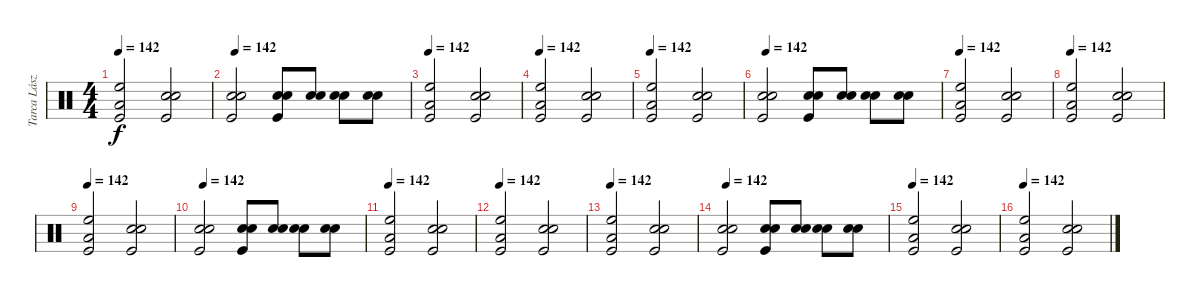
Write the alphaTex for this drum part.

\track ("Tarca László" "Tarca Lász") {instrument percussion}
\staff {score}
\articulation defaults
\ts (4 4)
\tempo 142
\clef neutral
\ks c
("Low Tom (hit)" "High Floor Tom (hit)" "Kick (hit)").2{dy f} ("Snare (hit) 2" "Snare (hit) 2" "Kick (hit)").2 |
\tempo 142
("Snare (hit) 2" "Snare (hit) 2" "Kick (hit)").2 ("Snare (hit) 2" "Snare (hit) 2" "Kick (hit)").8 ("Snare (hit) 2" "Snare (hit) 2").8 ("Snare (hit) 2" "Snare (hit) 2").8 ("Snare (hit) 2" "Snare (hit) 2").8 |
\tempo 142
("Low Tom (hit)" "High Floor Tom (hit)" "Kick (hit)").2 ("Snare (hit) 2" "Snare (hit) 2" "Kick (hit)").2 |
\tempo 142
("Low Tom (hit)" "High Floor Tom (hit)" "Kick (hit)").2 ("Snare (hit) 2" "Snare (hit) 2" "Kick (hit)").2 |
\tempo 142
("Low Tom (hit)" "High Floor Tom (hit)" "Kick (hit)").2 ("Snare (hit) 2" "Snare (hit) 2" "Kick (hit)").2 |
\tempo 142
("Snare (hit) 2" "Snare (hit) 2" "Kick (hit)").2 ("Snare (hit) 2" "Snare (hit) 2" "Kick (hit)").8 ("Snare (hit) 2" "Snare (hit) 2").8 ("Snare (hit) 2" "Snare (hit) 2").8 ("Snare (hit) 2" "Snare (hit) 2").8 |
\tempo 142
("Low Tom (hit)" "High Floor Tom (hit)" "Kick (hit)").2 ("Snare (hit) 2" "Snare (hit) 2" "Kick (hit)").2 |
\tempo 142
("Low Tom (hit)" "High Floor Tom (hit)" "Kick (hit)").2 ("Snare (hit) 2" "Snare (hit) 2" "Kick (hit)").2 |
\tempo 142
("Low Tom (hit)" "High Floor Tom (hit)" "Kick (hit)").2 ("Snare (hit) 2" "Snare (hit) 2" "Kick (hit)").2 |
\tempo 142
("Snare (hit) 2" "Snare (hit) 2" "Kick (hit)").2 ("Snare (hit) 2" "Snare (hit) 2" "Kick (hit)").8 ("Snare (hit) 2" "Snare (hit) 2").8 ("Snare (hit) 2" "Snare (hit) 2").8 ("Snare (hit) 2" "Snare (hit) 2").8 |
\tempo 142
("Low Tom (hit)" "High Floor Tom (hit)" "Kick (hit)").2 ("Snare (hit) 2" "Snare (hit) 2" "Kick (hit)").2 |
\tempo 142
("Low Tom (hit)" "High Floor Tom (hit)" "Kick (hit)").2 ("Snare (hit) 2" "Snare (hit) 2" "Kick (hit)").2 |
\tempo 142
("Low Tom (hit)" "High Floor Tom (hit)" "Kick (hit)").2 ("Snare (hit) 2" "Snare (hit) 2" "Kick (hit)").2 |
\tempo 142
("Snare (hit) 2" "Snare (hit) 2" "Kick (hit)").2 ("Snare (hit) 2" "Snare (hit) 2" "Kick (hit)").8 ("Snare (hit) 2" "Snare (hit) 2").8 ("Snare (hit) 2" "Snare (hit) 2").8 ("Snare (hit) 2" "Snare (hit) 2").8 |
\tempo 142
("Low Tom (hit)" "High Floor Tom (hit)" "Kick (hit)").2 ("Snare (hit) 2" "Snare (hit) 2" "Kick (hit)").2 |
\tempo 142
("Low Tom (hit)" "High Floor Tom (hit)" "Kick (hit)").2 ("Snare (hit) 2" "Snare (hit) 2" "Kick (hit)").2
